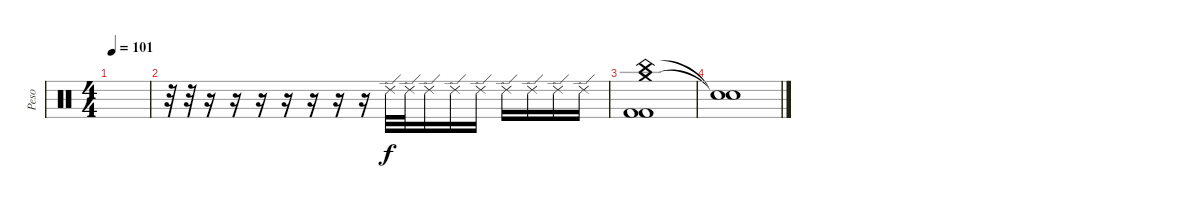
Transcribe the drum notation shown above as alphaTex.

\track ("Peso" "Peso") {instrument percussion}
\staff {score}
\articulation defaults
\ts (4 4)
\tempo 101
\clef neutral
\ks c
|
r.32 r.32 r.16 r.16 r.16 r.16 r.16 r.16 r.16 "Ride (edge) 2".32 "Ride (edge) 2".32 "Ride (edge) 2".16 "Ride (edge) 2".16 "Ride (edge) 2".16 "Ride (edge) 2".16 "Ride (edge) 2".16 "Ride (edge) 2".16 "Ride (edge) 2".16 |
("Crash medium (hit)" "China (hit)" "Kick (hit) 2" "Kick (hit) 2").1 |
("Snare (hit)"{t} "Snare (hit)"{t}).1
